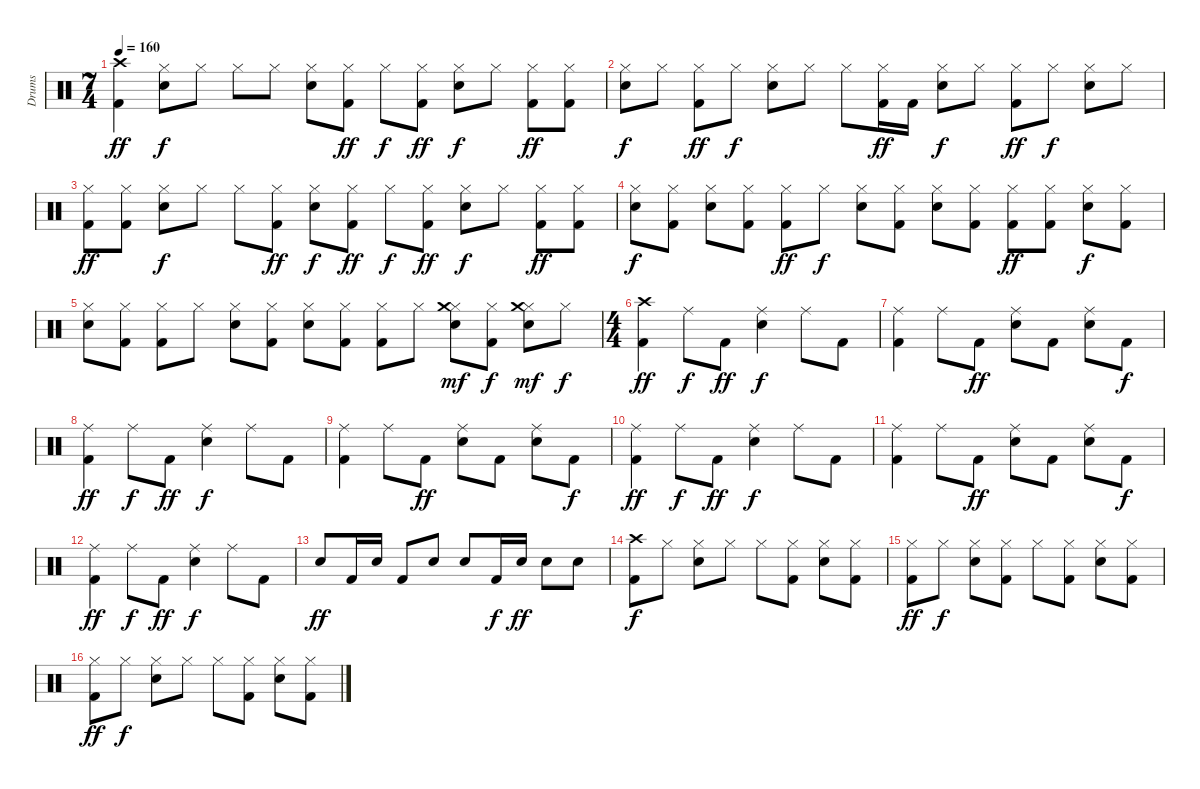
\track ("Drums" "Drums") {instrument percussion}
\staff {score}
\articulation defaults
\ts (7 4)
\tempo 160
\clef neutral
\ks c
("Crash high (hit)" "Kick (hit) 2").4{dy ff} ("Hi-Hat (closed)" "Snare (hit) 2").8{dy f} "Hi-Hat (closed)".8 "Hi-Hat (closed)".8 "Hi-Hat (closed)".8 ("Hi-Hat (closed)" "Snare (hit) 2").8 ("Hi-Hat (closed)" "Kick (hit) 2").8{dy ff} "Hi-Hat (closed)".8{dy f} ("Hi-Hat (closed)" "Kick (hit) 2").8{dy ff} ("Hi-Hat (closed)" "Snare (hit) 2").8{dy f} "Hi-Hat (closed)".8 ("Hi-Hat (closed)" "Kick (hit) 2").8{dy ff} ("Hi-Hat (closed)" "Kick (hit) 2").8 |
("Hi-Hat (closed)" "Snare (hit) 2").8{dy f} "Hi-Hat (closed)".8 ("Kick (hit) 2" "Hi-Hat (closed)").8{dy ff} "Hi-Hat (closed)".8{dy f} ("Hi-Hat (closed)" "Snare (hit) 2").8 "Hi-Hat (closed)".8 "Hi-Hat (closed)".8 ("Kick (hit) 2" "Hi-Hat (closed)").16{dy ff} "Kick (hit) 2".16 ("Hi-Hat (closed)" "Snare (hit) 2").8{dy f} "Hi-Hat (closed)".8 ("Kick (hit) 2" "Hi-Hat (closed)").8{dy ff} "Hi-Hat (closed)".8{dy f} ("Hi-Hat (closed)" "Snare (hit) 2").8 "Hi-Hat (closed)".8 |
("Hi-Hat (closed)" "Kick (hit) 2").8{dy ff} ("Hi-Hat (closed)" "Kick (hit) 2").8 ("Hi-Hat (closed)" "Snare (hit) 2").8{dy f} "Hi-Hat (closed)".8 "Hi-Hat (closed)".8 ("Hi-Hat (closed)" "Kick (hit) 2").8{dy ff} ("Hi-Hat (closed)" "Snare (hit) 2").8{dy f} ("Hi-Hat (closed)" "Kick (hit) 2").8{dy ff} "Hi-Hat (closed)".8{dy f} ("Hi-Hat (closed)" "Kick (hit) 2").8{dy ff} ("Hi-Hat (closed)" "Snare (hit) 2").8{dy f} "Hi-Hat (closed)".8 ("Hi-Hat (closed)" "Kick (hit) 2").8{dy ff} ("Hi-Hat (closed)" "Kick (hit) 2").8 |
("Hi-Hat (closed)" "Snare (hit) 2").8{dy f} ("Hi-Hat (closed)" "Kick (hit) 2").8 ("Hi-Hat (closed)" "Snare (hit) 2").8 ("Hi-Hat (closed)" "Kick (hit) 2").8 ("Hi-Hat (closed)" "Kick (hit) 2").8{dy ff} "Hi-Hat (closed)".8{dy f} ("Hi-Hat (closed)" "Snare (hit) 2").8 ("Hi-Hat (closed)" "Kick (hit) 2").8 ("Hi-Hat (closed)" "Snare (hit) 2").8 ("Hi-Hat (closed)" "Kick (hit) 2").8 ("Hi-Hat (closed)" "Kick (hit) 2").8{dy ff} ("Hi-Hat (closed)" "Kick (hit) 2").8 ("Hi-Hat (closed)" "Snare (hit) 2").8{dy f} ("Kick (hit) 2" "Hi-Hat (closed)").8 |
("Hi-Hat (closed)" "Snare (hit) 2").8 ("Hi-Hat (closed)" "Kick (hit) 2").8 ("Hi-Hat (closed)" "Kick (hit) 2").8 "Hi-Hat (closed)".8 ("Hi-Hat (closed)" "Snare (hit) 2").8 ("Hi-Hat (closed)" "Kick (hit) 2").8 ("Hi-Hat (closed)" "Snare (hit) 2").8 ("Hi-Hat (closed)" "Kick (hit) 2").8 ("Hi-Hat (closed)" "Kick (hit) 2").8 "Hi-Hat (closed)".8 ("Hi-Hat (closed)" "Crash medium (hit)" "Snare (hit) 2").8{dy mf} ("Hi-Hat (closed)" "Kick (hit) 2").8{dy f} ("Hi-Hat (closed)" "Crash medium (hit)" "Snare (hit) 2").8{dy mf} "Hi-Hat (closed)".8{dy f} |
\ts (4 4)
("Crash high (hit)" "Kick (hit) 2").4{dy ff} "Ride (middle)".8{dy f} "Kick (hit) 2".8{dy ff} ("Ride (middle)" "Snare (hit) 2").4{dy f} "Ride (middle)".8 "Kick (hit) 2".8 |
("Ride (middle)" "Kick (hit) 2").4 "Ride (middle)".8 "Kick (hit) 2".8{dy ff} ("Ride (middle)" "Snare (hit) 2").8 "Kick (hit) 2".8 ("Ride (middle)" "Snare (hit) 2").8 "Kick (hit) 2".8{dy f} |
("Ride (middle)" "Kick (hit) 2").4{dy ff} "Ride (middle)".8{dy f} "Kick (hit) 2".8{dy ff} ("Ride (middle)" "Snare (hit) 2").4{dy f} "Ride (middle)".8 "Kick (hit) 2".8 |
("Ride (middle)" "Kick (hit) 2").4 "Ride (middle)".8 "Kick (hit) 2".8{dy ff} ("Ride (middle)" "Snare (hit) 2").8 "Kick (hit) 2".8 ("Ride (middle)" "Snare (hit) 2").8 "Kick (hit) 2".8{dy f} |
("Ride (middle)" "Kick (hit) 2").4{dy ff} "Ride (middle)".8{dy f} "Kick (hit) 2".8{dy ff} ("Ride (middle)" "Snare (hit) 2").4{dy f} "Ride (middle)".8 "Kick (hit) 2".8 |
("Ride (middle)" "Kick (hit) 2").4 "Ride (middle)".8 "Kick (hit) 2".8{dy ff} ("Ride (middle)" "Snare (hit) 2").8 "Kick (hit) 2".8 ("Ride (middle)" "Snare (hit) 2").8 "Kick (hit) 2".8{dy f} |
("Ride (middle)" "Kick (hit) 2").4{dy ff} "Ride (middle)".8{dy f} "Kick (hit) 2".8{dy ff} ("Ride (middle)" "Snare (hit) 2").4{dy f} "Ride (middle)".8 "Kick (hit) 2".8 |
"Snare (hit) 2".8{dy ff} "Kick (hit) 2".16 "Snare (hit) 2".16 "Kick (hit) 2".8 "Snare (hit) 2".8 "Snare (hit) 2".8 "Kick (hit) 2".16{dy f} "Snare (hit) 2".16{dy ff} "Snare (hit) 2".8 "Snare (hit) 2".8 |
("Crash high (hit)" "Kick (hit) 2").8{dy f} "Hi-Hat (closed)".8 ("Hi-Hat (closed)" "Snare (hit) 2").8 "Hi-Hat (closed)".8 "Hi-Hat (closed)".8 ("Hi-Hat (closed)" "Kick (hit) 2").8 ("Hi-Hat (closed)" "Snare (hit) 2").8 ("Hi-Hat (closed)" "Kick (hit) 2").8 |
("Hi-Hat (closed)" "Kick (hit) 2").8{dy ff} "Hi-Hat (closed)".8{dy f} ("Hi-Hat (closed)" "Snare (hit) 2").8 ("Kick (hit) 2" "Hi-Hat (closed)").8 "Hi-Hat (closed)".8 ("Hi-Hat (closed)" "Kick (hit) 2").8 ("Hi-Hat (closed)" "Snare (hit) 2").8 ("Hi-Hat (closed)" "Kick (hit) 2").8 |
("Hi-Hat (closed)" "Kick (hit) 2").8{dy ff} "Hi-Hat (closed)".8{dy f} ("Hi-Hat (closed)" "Snare (hit) 2").8 "Hi-Hat (closed)".8 "Hi-Hat (closed)".8 ("Hi-Hat (closed)" "Kick (hit) 2").8 ("Hi-Hat (closed)" "Snare (hit) 2").8 ("Hi-Hat (closed)" "Kick (hit) 2").8
